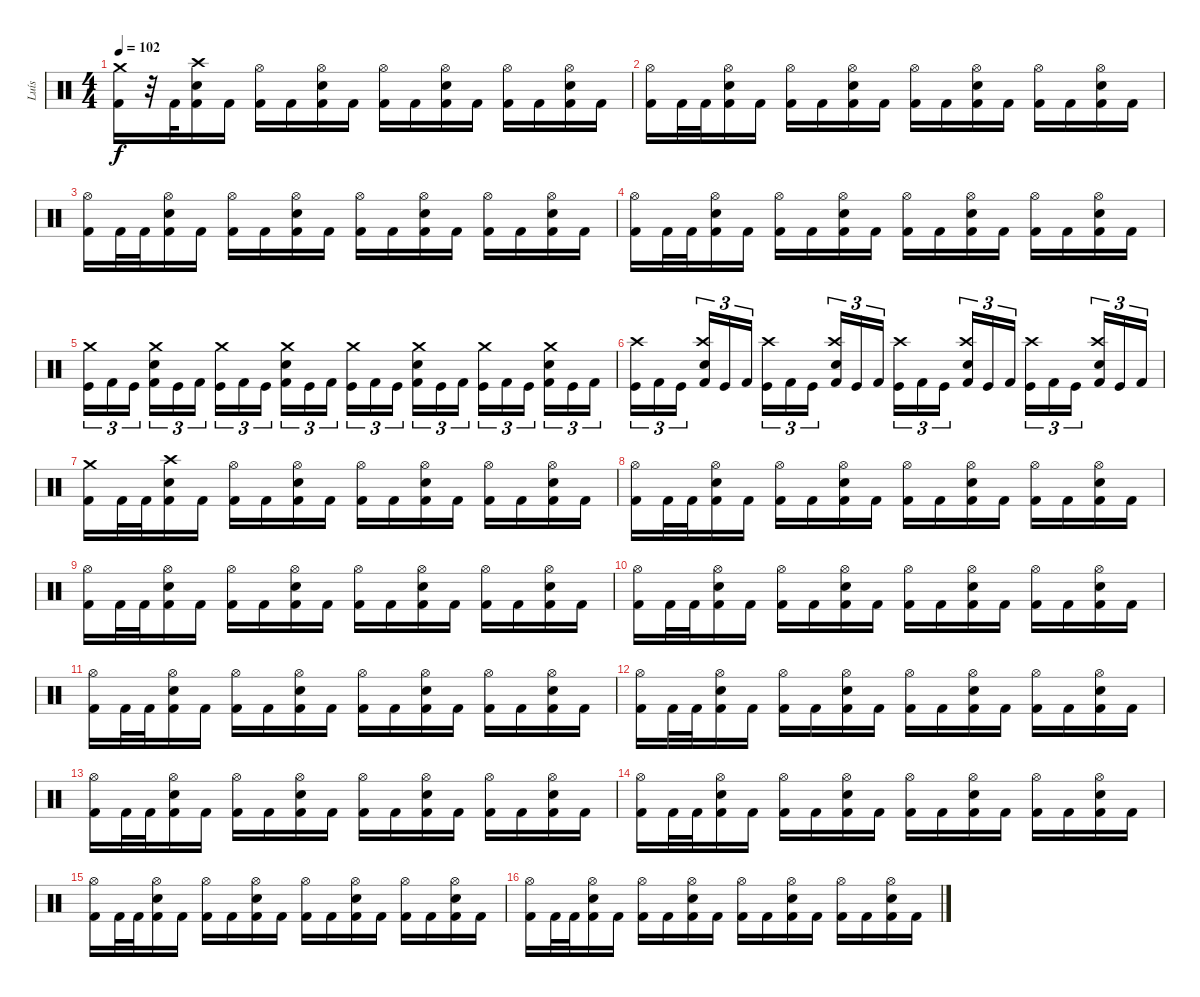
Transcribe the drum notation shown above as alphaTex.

\track ("Luís" "Luís") {instrument percussion}
\staff {score}
\articulation defaults
\ts (4 4)
\tempo 102
\clef neutral
\ks c
("Crash medium (hit)" "Kick (hit) 2").16{dy f} r.32 "Kick (hit) 2".32 ("Crash high (hit)" "Snare (hit) 2" "Kick (hit) 2").16 "Kick (hit) 2".16 ("Hi-Hat (open)" "Kick (hit) 2").16 "Kick (hit) 2".16 ("Hi-Hat (open)" "Snare (hit) 2" "Kick (hit) 2").16 "Kick (hit) 2".16 ("Hi-Hat (open)" "Kick (hit) 2").16 "Kick (hit) 2".16 ("Hi-Hat (open)" "Snare (hit) 2" "Kick (hit) 2").16 "Kick (hit) 2".16 ("Hi-Hat (open)" "Kick (hit) 2").16 "Kick (hit) 2".16 ("Hi-Hat (open)" "Snare (hit) 2" "Kick (hit) 2").16 "Kick (hit) 2".16 |
("Hi-Hat (open)" "Kick (hit) 2").16 "Kick (hit) 2".32 "Kick (hit) 2".32 ("Hi-Hat (open)" "Snare (hit) 2" "Kick (hit) 2").16 "Kick (hit) 2".16 ("Hi-Hat (open)" "Kick (hit) 2").16 "Kick (hit) 2".16 ("Hi-Hat (open)" "Snare (hit) 2" "Kick (hit) 2").16 "Kick (hit) 2".16 ("Hi-Hat (open)" "Kick (hit) 2").16 "Kick (hit) 2".16 ("Hi-Hat (open)" "Snare (hit) 2" "Kick (hit) 2").16 "Kick (hit) 2".16 ("Hi-Hat (open)" "Kick (hit) 2").16 "Kick (hit) 2".16 ("Hi-Hat (open)" "Snare (hit) 2" "Kick (hit) 2").16 "Kick (hit) 2".16 |
("Hi-Hat (open)" "Kick (hit) 2").16 "Kick (hit) 2".32 "Kick (hit) 2".32 ("Hi-Hat (open)" "Snare (hit) 2" "Kick (hit) 2").16 "Kick (hit) 2".16 ("Hi-Hat (open)" "Kick (hit) 2").16 "Kick (hit) 2".16 ("Hi-Hat (open)" "Snare (hit) 2" "Kick (hit) 2").16 "Kick (hit) 2".16 ("Hi-Hat (open)" "Kick (hit) 2").16 "Kick (hit) 2".16 ("Hi-Hat (open)" "Snare (hit) 2" "Kick (hit) 2").16 "Kick (hit) 2".16 ("Hi-Hat (open)" "Kick (hit) 2").16 "Kick (hit) 2".16 ("Hi-Hat (open)" "Snare (hit) 2" "Kick (hit) 2").16 "Kick (hit) 2".16 |
("Hi-Hat (open)" "Kick (hit) 2").16 "Kick (hit) 2".32 "Kick (hit) 2".32 ("Hi-Hat (open)" "Snare (hit) 2" "Kick (hit) 2").16 "Kick (hit) 2".16 ("Hi-Hat (open)" "Kick (hit) 2").16 "Kick (hit) 2".16 ("Hi-Hat (open)" "Snare (hit) 2" "Kick (hit) 2").16 "Kick (hit) 2".16 ("Hi-Hat (open)" "Kick (hit) 2").16 "Kick (hit) 2".16 ("Hi-Hat (open)" "Snare (hit) 2" "Kick (hit) 2").16 "Kick (hit) 2".16 ("Hi-Hat (open)" "Kick (hit) 2").16 "Kick (hit) 2".16 ("Hi-Hat (open)" "Snare (hit) 2" "Kick (hit) 2").16 "Kick (hit) 2".16 |
("Crash medium (hit)" "Kick (hit)").16{tu (3 2)} "Kick (hit) 2".16{tu (3 2)} "Kick (hit)".16{tu (3 2)} ("Crash medium (hit)" "Snare (hit) 2" "Kick (hit) 2").16{tu (3 2)} "Kick (hit)".16{tu (3 2)} "Kick (hit) 2".16{tu (3 2)} ("Crash medium (hit)" "Kick (hit)").16{tu (3 2)} "Kick (hit) 2".16{tu (3 2)} "Kick (hit)".16{tu (3 2)} ("Crash medium (hit)" "Snare (hit) 2" "Kick (hit) 2").16{tu (3 2)} "Kick (hit)".16{tu (3 2)} "Kick (hit) 2".16{tu (3 2)} ("Crash medium (hit)" "Kick (hit)").16{tu (3 2)} "Kick (hit) 2".16{tu (3 2)} "Kick (hit)".16{tu (3 2)} ("Crash medium (hit)" "Snare (hit) 2" "Kick (hit) 2").16{tu (3 2)} "Kick (hit)".16{tu (3 2)} "Kick (hit) 2".16{tu (3 2)} ("Crash medium (hit)" "Kick (hit)").16{tu (3 2)} "Kick (hit) 2".16{tu (3 2)} "Kick (hit)".16{tu (3 2)} ("Crash medium (hit)" "Snare (hit) 2" "Kick (hit) 2").16{tu (3 2)} "Kick (hit)".16{tu (3 2)} "Kick (hit) 2".16{tu (3 2)} |
("Crash high (hit)" "Kick (hit)").16{tu (3 2)} "Kick (hit) 2".16{tu (3 2)} "Kick (hit)".16{tu (3 2)} ("Crash high (hit)" "Snare (hit) 2" "Kick (hit) 2").16{tu (3 2)} "Kick (hit)".16{tu (3 2)} "Kick (hit) 2".16{tu (3 2)} ("Crash high (hit)" "Kick (hit)").16{tu (3 2)} "Kick (hit) 2".16{tu (3 2)} "Kick (hit)".16{tu (3 2)} ("Crash high (hit)" "Snare (hit) 2" "Kick (hit) 2").16{tu (3 2)} "Kick (hit)".16{tu (3 2)} "Kick (hit) 2".16{tu (3 2)} ("Crash high (hit)" "Kick (hit)").16{tu (3 2)} "Kick (hit) 2".16{tu (3 2)} "Kick (hit)".16{tu (3 2)} ("Crash high (hit)" "Snare (hit) 2" "Kick (hit) 2").16{tu (3 2)} "Kick (hit)".16{tu (3 2)} "Kick (hit) 2".16{tu (3 2)} ("Crash high (hit)" "Kick (hit)").16{tu (3 2)} "Kick (hit) 2".16{tu (3 2)} "Kick (hit)".16{tu (3 2)} ("Crash high (hit)" "Snare (hit) 2" "Kick (hit) 2").16{tu (3 2)} "Kick (hit)".16{tu (3 2)} "Kick (hit) 2".16{tu (3 2)} |
("Crash medium (hit)" "Kick (hit) 2").16 "Kick (hit) 2".32 "Kick (hit) 2".32 ("Crash high (hit)" "Snare (hit) 2" "Kick (hit) 2").16 "Kick (hit) 2".16 ("Hi-Hat (open)" "Kick (hit) 2").16 "Kick (hit) 2".16 ("Hi-Hat (open)" "Snare (hit) 2" "Kick (hit) 2").16 "Kick (hit) 2".16 ("Hi-Hat (open)" "Kick (hit) 2").16 "Kick (hit) 2".16 ("Hi-Hat (open)" "Snare (hit) 2" "Kick (hit) 2").16 "Kick (hit) 2".16 ("Hi-Hat (open)" "Kick (hit) 2").16 "Kick (hit) 2".16 ("Hi-Hat (open)" "Snare (hit) 2" "Kick (hit) 2").16 "Kick (hit) 2".16 |
("Hi-Hat (open)" "Kick (hit) 2").16 "Kick (hit) 2".32 "Kick (hit) 2".32 ("Hi-Hat (open)" "Snare (hit) 2" "Kick (hit) 2").16 "Kick (hit) 2".16 ("Hi-Hat (open)" "Kick (hit) 2").16 "Kick (hit) 2".16 ("Hi-Hat (open)" "Snare (hit) 2" "Kick (hit) 2").16 "Kick (hit) 2".16 ("Hi-Hat (open)" "Kick (hit) 2").16 "Kick (hit) 2".16 ("Hi-Hat (open)" "Snare (hit) 2" "Kick (hit) 2").16 "Kick (hit) 2".16 ("Hi-Hat (open)" "Kick (hit) 2").16 "Kick (hit) 2".16 ("Hi-Hat (open)" "Snare (hit) 2" "Kick (hit) 2").16 "Kick (hit) 2".16 |
("Hi-Hat (open)" "Kick (hit) 2").16 "Kick (hit) 2".32 "Kick (hit) 2".32 ("Hi-Hat (open)" "Snare (hit) 2" "Kick (hit) 2").16 "Kick (hit) 2".16 ("Hi-Hat (open)" "Kick (hit) 2").16 "Kick (hit) 2".16 ("Hi-Hat (open)" "Snare (hit) 2" "Kick (hit) 2").16 "Kick (hit) 2".16 ("Hi-Hat (open)" "Kick (hit) 2").16 "Kick (hit) 2".16 ("Hi-Hat (open)" "Snare (hit) 2" "Kick (hit) 2").16 "Kick (hit) 2".16 ("Hi-Hat (open)" "Kick (hit) 2").16 "Kick (hit) 2".16 ("Hi-Hat (open)" "Snare (hit) 2" "Kick (hit) 2").16 "Kick (hit) 2".16 |
("Hi-Hat (open)" "Kick (hit) 2").16 "Kick (hit) 2".32 "Kick (hit) 2".32 ("Hi-Hat (open)" "Snare (hit) 2" "Kick (hit) 2").16 "Kick (hit) 2".16 ("Hi-Hat (open)" "Kick (hit) 2").16 "Kick (hit) 2".16 ("Hi-Hat (open)" "Snare (hit) 2" "Kick (hit) 2").16 "Kick (hit) 2".16 ("Hi-Hat (open)" "Kick (hit) 2").16 "Kick (hit) 2".16 ("Hi-Hat (open)" "Snare (hit) 2" "Kick (hit) 2").16 "Kick (hit) 2".16 ("Hi-Hat (open)" "Kick (hit) 2").16 "Kick (hit) 2".16 ("Hi-Hat (open)" "Snare (hit) 2" "Kick (hit) 2").16 "Kick (hit) 2".16 |
("Hi-Hat (open)" "Kick (hit) 2").16 "Kick (hit) 2".32 "Kick (hit) 2".32 ("Hi-Hat (open)" "Snare (hit) 2" "Kick (hit) 2").16 "Kick (hit) 2".16 ("Hi-Hat (open)" "Kick (hit) 2").16 "Kick (hit) 2".16 ("Hi-Hat (open)" "Snare (hit) 2" "Kick (hit) 2").16 "Kick (hit) 2".16 ("Hi-Hat (open)" "Kick (hit) 2").16 "Kick (hit) 2".16 ("Hi-Hat (open)" "Snare (hit) 2" "Kick (hit) 2").16 "Kick (hit) 2".16 ("Hi-Hat (open)" "Kick (hit) 2").16 "Kick (hit) 2".16 ("Hi-Hat (open)" "Snare (hit) 2" "Kick (hit) 2").16 "Kick (hit) 2".16 |
("Hi-Hat (open)" "Kick (hit) 2").16 "Kick (hit) 2".32 "Kick (hit) 2".32 ("Hi-Hat (open)" "Snare (hit) 2" "Kick (hit) 2").16 "Kick (hit) 2".16 ("Hi-Hat (open)" "Kick (hit) 2").16 "Kick (hit) 2".16 ("Hi-Hat (open)" "Snare (hit) 2" "Kick (hit) 2").16 "Kick (hit) 2".16 ("Hi-Hat (open)" "Kick (hit) 2").16 "Kick (hit) 2".16 ("Hi-Hat (open)" "Snare (hit) 2" "Kick (hit) 2").16 "Kick (hit) 2".16 ("Hi-Hat (open)" "Kick (hit) 2").16 "Kick (hit) 2".16 ("Hi-Hat (open)" "Snare (hit) 2" "Kick (hit) 2").16 "Kick (hit) 2".16 |
("Hi-Hat (open)" "Kick (hit) 2").16 "Kick (hit) 2".32 "Kick (hit) 2".32 ("Hi-Hat (open)" "Snare (hit) 2" "Kick (hit) 2").16 "Kick (hit) 2".16 ("Hi-Hat (open)" "Kick (hit) 2").16 "Kick (hit) 2".16 ("Hi-Hat (open)" "Snare (hit) 2" "Kick (hit) 2").16 "Kick (hit) 2".16 ("Hi-Hat (open)" "Kick (hit) 2").16 "Kick (hit) 2".16 ("Hi-Hat (open)" "Snare (hit) 2" "Kick (hit) 2").16 "Kick (hit) 2".16 ("Hi-Hat (open)" "Kick (hit) 2").16 "Kick (hit) 2".16 ("Hi-Hat (open)" "Snare (hit) 2" "Kick (hit) 2").16 "Kick (hit) 2".16 |
("Hi-Hat (open)" "Kick (hit) 2").16 "Kick (hit) 2".32 "Kick (hit) 2".32 ("Hi-Hat (open)" "Snare (hit) 2" "Kick (hit) 2").16 "Kick (hit) 2".16 ("Hi-Hat (open)" "Kick (hit) 2").16 "Kick (hit) 2".16 ("Hi-Hat (open)" "Snare (hit) 2" "Kick (hit) 2").16 "Kick (hit) 2".16 ("Hi-Hat (open)" "Kick (hit) 2").16 "Kick (hit) 2".16 ("Hi-Hat (open)" "Snare (hit) 2" "Kick (hit) 2").16 "Kick (hit) 2".16 ("Hi-Hat (open)" "Kick (hit) 2").16 "Kick (hit) 2".16 ("Hi-Hat (open)" "Snare (hit) 2" "Kick (hit) 2").16 "Kick (hit) 2".16 |
("Hi-Hat (open)" "Kick (hit) 2").16 "Kick (hit) 2".32 "Kick (hit) 2".32 ("Hi-Hat (open)" "Snare (hit) 2" "Kick (hit) 2").16 "Kick (hit) 2".16 ("Hi-Hat (open)" "Kick (hit) 2").16 "Kick (hit) 2".16 ("Hi-Hat (open)" "Snare (hit) 2" "Kick (hit) 2").16 "Kick (hit) 2".16 ("Hi-Hat (open)" "Kick (hit) 2").16 "Kick (hit) 2".16 ("Hi-Hat (open)" "Snare (hit) 2" "Kick (hit) 2").16 "Kick (hit) 2".16 ("Hi-Hat (open)" "Kick (hit) 2").16 "Kick (hit) 2".16 ("Hi-Hat (open)" "Snare (hit) 2" "Kick (hit) 2").16 "Kick (hit) 2".16 |
("Hi-Hat (open)" "Kick (hit) 2").16 "Kick (hit) 2".32 "Kick (hit) 2".32 ("Hi-Hat (open)" "Snare (hit) 2" "Kick (hit) 2").16 "Kick (hit) 2".16 ("Hi-Hat (open)" "Kick (hit) 2").16 "Kick (hit) 2".16 ("Hi-Hat (open)" "Snare (hit) 2" "Kick (hit) 2").16 "Kick (hit) 2".16 ("Hi-Hat (open)" "Kick (hit) 2").16 "Kick (hit) 2".16 ("Hi-Hat (open)" "Snare (hit) 2" "Kick (hit) 2").16 "Kick (hit) 2".16 ("Hi-Hat (open)" "Kick (hit) 2").16 "Kick (hit) 2".16 ("Hi-Hat (open)" "Snare (hit) 2" "Kick (hit) 2").16 "Kick (hit) 2".16
